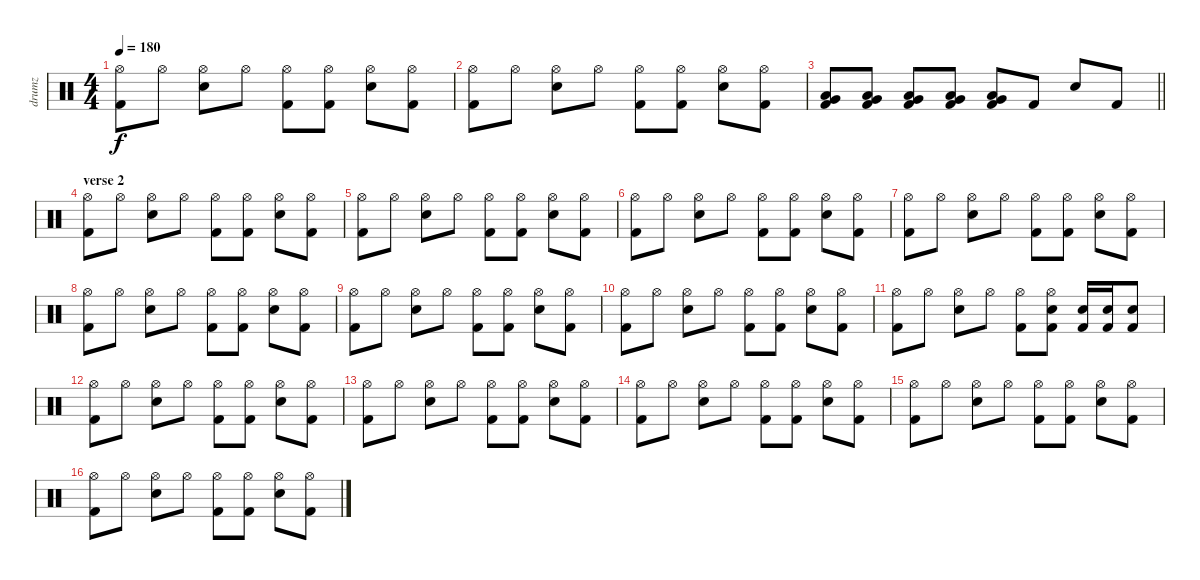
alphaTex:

\track ("drumz" "drumz") {instrument percussion}
\staff {score}
\articulation defaults
\ts (4 4)
\tempo 180
\clef neutral
\ks c
("Hi-Hat (open)" "Kick (hit) 2").8{dy f} "Hi-Hat (open)".8 ("Hi-Hat (open)" "Electric Snare (hit)").8 "Hi-Hat (open)".8 ("Hi-Hat (open)" "Kick (hit) 2").8 ("Hi-Hat (open)" "Kick (hit) 2").8 ("Hi-Hat (open)" "Electric Snare (hit)").8 ("Hi-Hat (open)" "Kick (hit) 2").8 |
("Hi-Hat (open)" "Kick (hit) 2").8 "Hi-Hat (open)".8 ("Hi-Hat (open)" "Electric Snare (hit)").8 "Hi-Hat (open)".8 ("Hi-Hat (open)" "Kick (hit) 2").8 ("Hi-Hat (open)" "Kick (hit) 2").8 ("Hi-Hat (open)" "Electric Snare (hit)").8 ("Hi-Hat (open)" "Kick (hit) 2").8 |
\barLineRight lightlight
("Low Tom (hit)" "Very Low Tom (hit)" "Kick (hit) 2").8 ("Low Tom (hit)" "Very Low Tom (hit)" "Kick (hit) 2").8 ("Low Tom (hit)" "Very Low Tom (hit)" "Kick (hit) 2").8 ("Low Tom (hit)" "Very Low Tom (hit)" "Kick (hit) 2").8 ("Very Low Tom (hit)" "Low Floor Tom (hit)" "Kick (hit) 2").8 "Kick (hit) 2".8 "Electric Snare (hit)".8 "Kick (hit) 2".8 |
\section ("" "verse 2")
("Hi-Hat (open)" "Kick (hit) 2").8 "Hi-Hat (open)".8 ("Hi-Hat (open)" "Electric Snare (hit)").8 "Hi-Hat (open)".8 ("Hi-Hat (open)" "Kick (hit) 2").8 ("Hi-Hat (open)" "Kick (hit) 2").8 ("Hi-Hat (open)" "Electric Snare (hit)").8 ("Hi-Hat (open)" "Kick (hit) 2").8 |
("Hi-Hat (open)" "Kick (hit) 2").8 "Hi-Hat (open)".8 ("Hi-Hat (open)" "Electric Snare (hit)").8 "Hi-Hat (open)".8 ("Hi-Hat (open)" "Kick (hit) 2").8 ("Hi-Hat (open)" "Kick (hit) 2").8 ("Hi-Hat (open)" "Electric Snare (hit)").8 ("Hi-Hat (open)" "Kick (hit) 2").8 |
("Hi-Hat (open)" "Kick (hit) 2").8 "Hi-Hat (open)".8 ("Hi-Hat (open)" "Electric Snare (hit)").8 "Hi-Hat (open)".8 ("Hi-Hat (open)" "Kick (hit) 2").8 ("Hi-Hat (open)" "Kick (hit) 2").8 ("Hi-Hat (open)" "Electric Snare (hit)").8 ("Hi-Hat (open)" "Kick (hit) 2").8 |
("Hi-Hat (open)" "Kick (hit) 2").8 "Hi-Hat (open)".8 ("Hi-Hat (open)" "Electric Snare (hit)").8 "Hi-Hat (open)".8 ("Hi-Hat (open)" "Kick (hit) 2").8 ("Hi-Hat (open)" "Kick (hit) 2").8 ("Hi-Hat (open)" "Electric Snare (hit)").8 ("Hi-Hat (open)" "Kick (hit) 2").8 |
("Hi-Hat (open)" "Kick (hit) 2").8 "Hi-Hat (open)".8 ("Hi-Hat (open)" "Electric Snare (hit)").8 "Hi-Hat (open)".8 ("Hi-Hat (open)" "Kick (hit) 2").8 ("Hi-Hat (open)" "Kick (hit) 2").8 ("Hi-Hat (open)" "Electric Snare (hit)").8 ("Hi-Hat (open)" "Kick (hit) 2").8 |
("Hi-Hat (open)" "Kick (hit) 2").8 "Hi-Hat (open)".8 ("Hi-Hat (open)" "Electric Snare (hit)").8 "Hi-Hat (open)".8 ("Hi-Hat (open)" "Kick (hit) 2").8 ("Hi-Hat (open)" "Kick (hit) 2").8 ("Hi-Hat (open)" "Electric Snare (hit)").8 ("Hi-Hat (open)" "Kick (hit) 2").8 |
("Hi-Hat (open)" "Kick (hit) 2").8 "Hi-Hat (open)".8 ("Hi-Hat (open)" "Electric Snare (hit)").8 "Hi-Hat (open)".8 ("Hi-Hat (open)" "Kick (hit) 2").8 ("Hi-Hat (open)" "Kick (hit) 2").8 ("Hi-Hat (open)" "Electric Snare (hit)").8 ("Hi-Hat (open)" "Kick (hit) 2").8 |
("Hi-Hat (open)" "Kick (hit) 2").8 "Hi-Hat (open)".8 ("Hi-Hat (open)" "Electric Snare (hit)").8 "Hi-Hat (open)".8 ("Hi-Hat (open)" "Kick (hit) 2").8 ("Hi-Hat (open)" "Electric Snare (hit)" "Kick (hit) 2").8 ("Electric Snare (hit)" "Kick (hit) 2").16 ("Electric Snare (hit)" "Kick (hit) 2").16 ("Electric Snare (hit)" "Kick (hit) 2").8 |
("Hi-Hat (open)" "Kick (hit) 2").8 "Hi-Hat (open)".8 ("Hi-Hat (open)" "Electric Snare (hit)").8 "Hi-Hat (open)".8 ("Hi-Hat (open)" "Kick (hit) 2").8 ("Hi-Hat (open)" "Kick (hit) 2").8 ("Hi-Hat (open)" "Electric Snare (hit)").8 ("Hi-Hat (open)" "Kick (hit) 2").8 |
("Hi-Hat (open)" "Kick (hit) 2").8 "Hi-Hat (open)".8 ("Hi-Hat (open)" "Electric Snare (hit)").8 "Hi-Hat (open)".8 ("Hi-Hat (open)" "Kick (hit) 2").8 ("Hi-Hat (open)" "Kick (hit) 2").8 ("Hi-Hat (open)" "Electric Snare (hit)").8 ("Hi-Hat (open)" "Kick (hit) 2").8 |
("Hi-Hat (open)" "Kick (hit) 2").8 "Hi-Hat (open)".8 ("Hi-Hat (open)" "Electric Snare (hit)").8 "Hi-Hat (open)".8 ("Hi-Hat (open)" "Kick (hit) 2").8 ("Hi-Hat (open)" "Kick (hit) 2").8 ("Hi-Hat (open)" "Electric Snare (hit)").8 ("Hi-Hat (open)" "Kick (hit) 2").8 |
("Hi-Hat (open)" "Kick (hit) 2").8 "Hi-Hat (open)".8 ("Hi-Hat (open)" "Electric Snare (hit)").8 "Hi-Hat (open)".8 ("Hi-Hat (open)" "Kick (hit) 2").8 ("Hi-Hat (open)" "Kick (hit) 2").8 ("Hi-Hat (open)" "Electric Snare (hit)").8 ("Hi-Hat (open)" "Kick (hit) 2").8 |
("Hi-Hat (open)" "Kick (hit) 2").8 "Hi-Hat (open)".8 ("Hi-Hat (open)" "Electric Snare (hit)").8 "Hi-Hat (open)".8 ("Hi-Hat (open)" "Kick (hit) 2").8 ("Hi-Hat (open)" "Kick (hit) 2").8 ("Hi-Hat (open)" "Electric Snare (hit)").8 ("Hi-Hat (open)" "Kick (hit) 2").8
